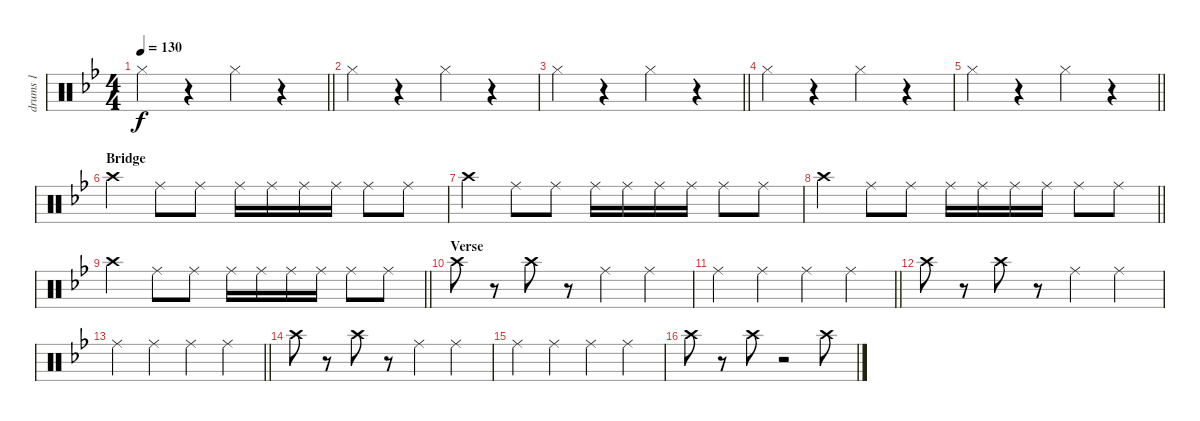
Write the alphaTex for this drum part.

\track ("drums 1" "drums 1") {instrument percussion}
\staff {score}
\articulation defaults
\ts (4 4)
\tempo 130
\clef neutral
\barLineRight lightlight
\ks bb "Hi-Hat (closed)".4{dy f}
r.4 "Hi-Hat (closed)".4 r.4 |
"Hi-Hat (closed)".4 r.4 "Hi-Hat (closed)".4 r.4 |
\barLineRight lightlight "Hi-Hat (closed)".4
r.4 "Hi-Hat (closed)".4 r.4 |
"Hi-Hat (closed)".4 r.4 "Hi-Hat (closed)".4 r.4 |
\barLineRight lightlight "Hi-Hat (closed)".4
r.4 "Hi-Hat (closed)".4 r.4 |
\section ("" "Bridge")
"Crash high (hit)".4 "Ride (middle)".8 "Ride (middle)".8 "Ride (middle)".16 "Ride (middle)".16 "Ride (middle)".16 "Ride (middle)".16 "Ride (middle)".8 "Ride (middle)".8 |
"Crash high (hit)".4 "Ride (middle)".8 "Ride (middle)".8 "Ride (middle)".16 "Ride (middle)".16 "Ride (middle)".16 "Ride (middle)".16 "Ride (middle)".8 "Ride (middle)".8 |
\barLineRight lightlight "Crash high (hit)".4 "Ride (middle)".8 "Ride (middle)".8 "Ride (middle)".16 "Ride (middle)".16 "Ride (middle)".16 "Ride (middle)".16 "Ride (middle)".8 "Ride (middle)".8
|
\barLineRight lightlight "Crash high (hit)".4 "Ride (middle)".8 "Ride (middle)".8 "Ride (middle)".16 "Ride (middle)".16 "Ride (middle)".16 "Ride (middle)".16 "Ride (middle)".8 "Ride (middle)".8
|
\section ("" "Verse")
"Crash high (hit)".8 r.8 "Crash high (hit)".8 r.8 "Ride (middle)".4 "Ride (middle)".4 |
\barLineRight lightlight "Ride (middle)".4 "Ride (middle)".4 "Ride (middle)".4 "Ride (middle)".4
|
"Crash high (hit)".8 r.8 "Crash high (hit)".8 r.8 "Ride (middle)".4 "Ride (middle)".4 |
\barLineRight lightlight "Ride (middle)".4 "Ride (middle)".4 "Ride (middle)".4 "Ride (middle)".4
|
"Crash high (hit)".8 r.8 "Crash high (hit)".8 r.8 "Ride (middle)".4 "Ride (middle)".4 |
"Ride (middle)".4 "Ride (middle)".4 "Ride (middle)".4 "Ride (middle)".4 |
"Crash high (hit)".8 r.8 "Crash high (hit)".8 r.2 "Crash high (hit)".8
